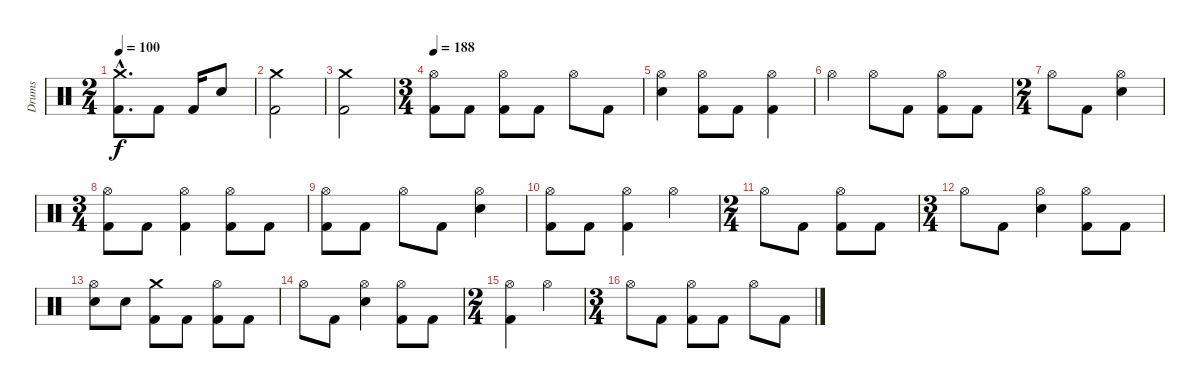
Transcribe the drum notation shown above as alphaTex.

\track ("Drums" "Drums") {instrument percussion}
\staff {score}
\articulation defaults
\ts (2 4)
\tempo 100
\clef neutral
\ks c
("Crash medium (hit)"{hac} "Kick (hit) 2"{hac}).8{d dy f} "Kick (hit) 2".8 "Kick (hit) 2".16 "Electric Snare (hit)".8 |
("Crash medium (hit)" "Kick (hit) 2").2 |
("Crash medium (hit)" "Kick (hit) 2").2 |
\ts (3 4)
\tempo 188
("Hi-Hat (open)" "Kick (hit) 2").8 "Kick (hit) 2".8 ("Hi-Hat (open)" "Kick (hit) 2").8 "Kick (hit) 2".8 "Hi-Hat (open)".8 "Kick (hit) 2".8 |
("Electric Snare (hit)" "Hi-Hat (open)").4 ("Hi-Hat (open)" "Kick (hit) 2").8 "Kick (hit) 2".8 ("Hi-Hat (open)" "Kick (hit) 2").4 |
"Hi-Hat (open)".4 "Hi-Hat (open)".8 "Kick (hit) 2".8 ("Hi-Hat (open)" "Kick (hit) 2").8 "Kick (hit) 2".8 |
\ts (2 4)
"Hi-Hat (open)".8 "Kick (hit) 2".8 ("Electric Snare (hit)" "Hi-Hat (open)").4 |
\ts (3 4)
("Hi-Hat (open)" "Kick (hit) 2").8 "Kick (hit) 2".8 ("Hi-Hat (open)" "Kick (hit) 2").4 ("Hi-Hat (open)" "Kick (hit) 2").8 "Kick (hit) 2".8 |
("Hi-Hat (open)" "Kick (hit) 2").8 "Kick (hit) 2".8 "Hi-Hat (open)".8 "Kick (hit) 2".8 ("Electric Snare (hit)" "Hi-Hat (open)").4 |
("Hi-Hat (open)" "Kick (hit) 2").8 "Kick (hit) 2".8 ("Hi-Hat (open)" "Kick (hit) 2").4 "Hi-Hat (open)".4 |
\ts (2 4)
"Hi-Hat (open)".8 "Kick (hit) 2".8 ("Hi-Hat (open)" "Kick (hit) 2").8 "Kick (hit) 2".8 |
\ts (3 4)
"Hi-Hat (open)".8 "Kick (hit) 2".8 ("Electric Snare (hit)" "Hi-Hat (open)").4 ("Hi-Hat (open)" "Kick (hit) 2").8 "Kick (hit) 2".8 |
("Electric Snare (hit)" "Hi-Hat (open)").8 "Electric Snare (hit)".8 ("Crash medium (hit)" "Kick (hit) 2").8 "Kick (hit) 2".8 ("Hi-Hat (open)" "Kick (hit) 2").8 "Kick (hit) 2".8 |
"Hi-Hat (open)".8 "Kick (hit) 2".8 ("Electric Snare (hit)" "Hi-Hat (open)").4 ("Hi-Hat (open)" "Kick (hit) 2").8 "Kick (hit) 2".8 |
\ts (2 4)
("Hi-Hat (open)" "Kick (hit) 2").4 "Hi-Hat (open)".4 |
\ts (3 4)
"Hi-Hat (open)".8 "Kick (hit) 2".8 ("Hi-Hat (open)" "Kick (hit) 2").8 "Kick (hit) 2".8 "Hi-Hat (open)".8 "Kick (hit) 2".8
